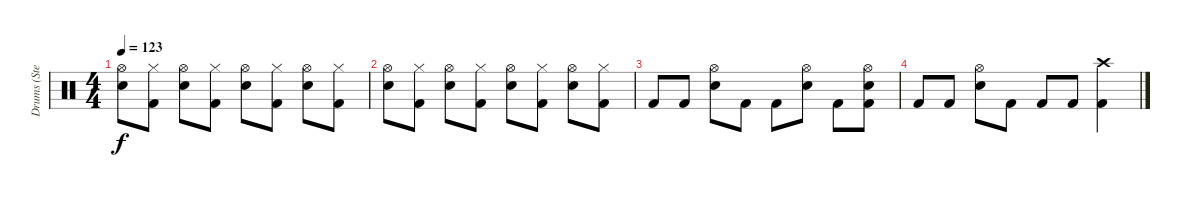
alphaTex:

\track ("Drums (Steve)" "Drums (Ste") {instrument percussion}
\staff {score}
\articulation defaults
\ts (4 4)
\tempo 123
\clef neutral
\ks c
("Hi-Hat (open)" "Snare (hit) 2").8{dy f} ("Hi-Hat (closed)" "Kick (hit) 2").8 ("Hi-Hat (open)" "Snare (hit) 2").8 ("Hi-Hat (closed)" "Kick (hit) 2").8 ("Hi-Hat (open)" "Snare (hit) 2").8 ("Hi-Hat (closed)" "Kick (hit) 2").8 ("Hi-Hat (open)" "Snare (hit) 2").8 ("Hi-Hat (closed)" "Kick (hit) 2").8 |
("Hi-Hat (open)" "Snare (hit) 2").8 ("Hi-Hat (closed)" "Kick (hit) 2").8 ("Hi-Hat (open)" "Snare (hit) 2").8 ("Hi-Hat (closed)" "Kick (hit) 2").8 ("Hi-Hat (open)" "Snare (hit) 2").8 ("Hi-Hat (closed)" "Kick (hit) 2").8 ("Hi-Hat (open)" "Snare (hit) 2").8 ("Hi-Hat (closed)" "Kick (hit) 2").8 |
"Kick (hit) 2".8 "Kick (hit) 2".8 ("Hi-Hat (open)" "Snare (hit) 2").8 "Kick (hit) 2".8 "Kick (hit) 2".8 ("Hi-Hat (open)" "Snare (hit) 2").8 "Kick (hit) 2".8 ("Hi-Hat (open)" "Snare (hit) 2" "Kick (hit) 2").8 |
"Kick (hit) 2".8 "Kick (hit) 2".8 ("Hi-Hat (open)" "Snare (hit) 2").8 "Kick (hit) 2".8 "Kick (hit) 2".8 "Kick (hit) 2".8 ("Crash high (hit)" "Kick (hit) 2").4
